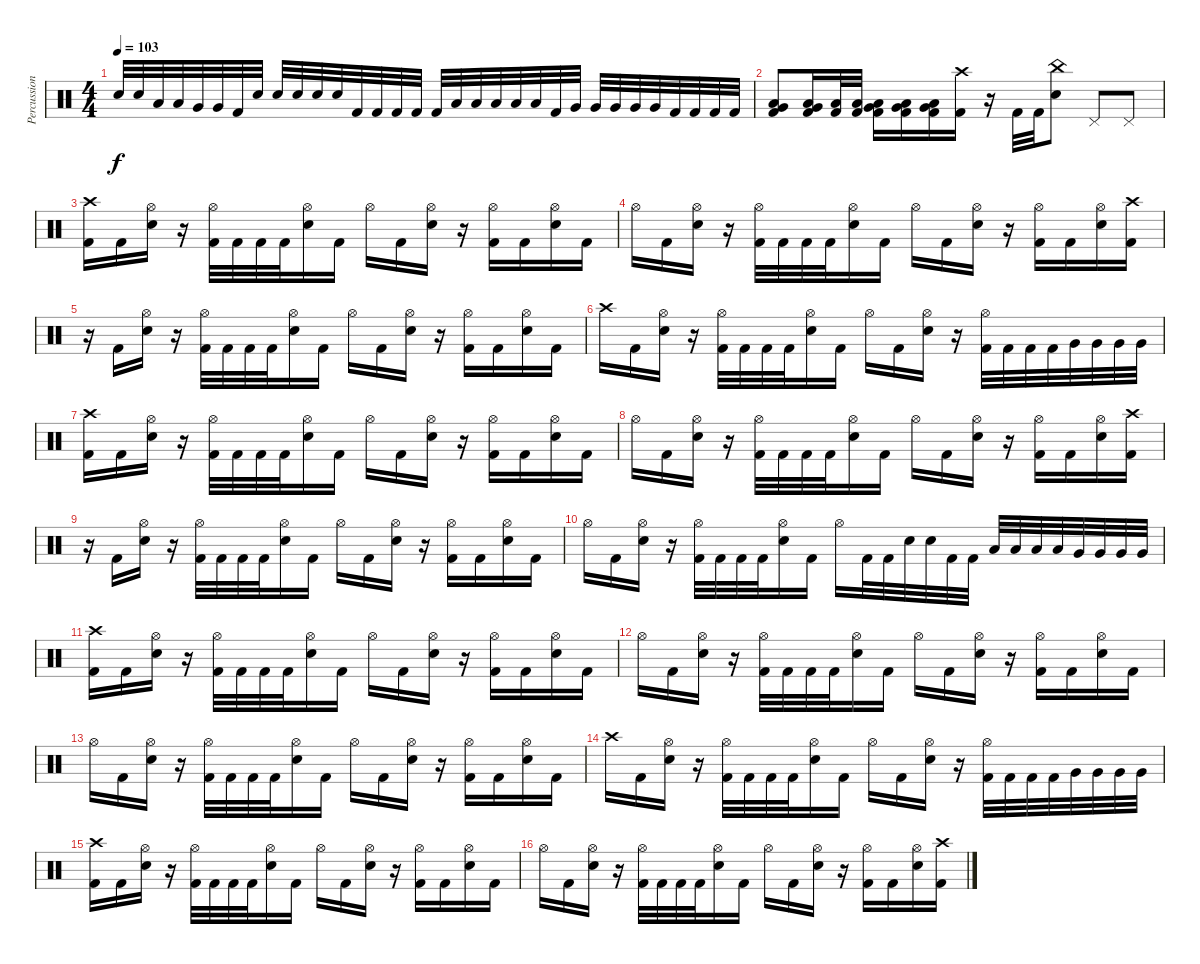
\track ("Percussion" "Percussion") {instrument percussion}
\staff {score}
\articulation defaults
\ts (4 4)
\tempo 103
\clef neutral
\ks c "Snare (hit) 2".32{dy f} "Snare (hit) 2".32 "Low Tom (hit)".32 "Low Tom (hit)".32 "Very Low Tom (hit)".32 "Very Low Tom (hit)".32 "Kick (hit) 2".32 "Snare (hit) 2".32 "Snare (hit) 2".32 "Snare (hit) 2".32 "Snare (hit) 2".32 "Snare (hit) 2".32 "Kick (hit) 2".32 "Kick (hit) 2".32 "Kick (hit) 2".32 "Kick (hit) 2".32 "Kick (hit) 2".32 "Low Tom (hit)".32 "Low Tom (hit)".32 "Low Tom (hit)".32 "Low Tom (hit)".32 "Low Tom (hit)".32 "Kick (hit) 2".32 "Very Low Tom (hit)".32 "Very Low Tom (hit)".32 "Very Low Tom (hit)".32 "Very Low Tom (hit)".32 "Very Low Tom (hit)".32 "Kick (hit) 2".32 "Kick (hit) 2".32 "Kick (hit) 2".32 "Kick (hit) 2".32
|
("Very Low Tom (hit)" "Low Floor Tom (hit)" "Kick (hit) 2").8 ("Very Low Tom (hit)" "Low Floor Tom (hit)" "Kick (hit) 2").16 ("Low Floor Tom (hit)" "Kick (hit) 2").32 ("Low Floor Tom (hit)" "Kick (hit) 2").32 ("Very Low Tom (hit)" "Low Floor Tom (hit)" "Kick (hit) 2").16 ("Very Low Tom (hit)" "Low Floor Tom (hit)" "Kick (hit) 2").16 ("Very Low Tom (hit)" "Low Floor Tom (hit)" "Kick (hit) 2").16 ("Crash high (hit)" "Kick (hit) 2").16 r.16 "Kick (hit) 2".32 "Kick (hit) 2".32 ("China (hit)" "Snare (hit) 2").8 "Pedal Hi-Hat (hit)".8 "Pedal Hi-Hat (hit)".8 |
("Crash high (hit)" "Kick (hit) 2").16 "Kick (hit) 2".16 ("Hi-Hat (open)" "Snare (hit) 2").16 r.16 ("Hi-Hat (open)" "Kick (hit) 2").32 "Kick (hit) 2".32 "Kick (hit) 2".32 "Kick (hit) 2".32 ("Hi-Hat (open)" "Snare (hit) 2").16 "Kick (hit) 2".16 "Hi-Hat (open)".16 "Kick (hit) 2".16 ("Hi-Hat (open)" "Snare (hit) 2").16 r.16 ("Hi-Hat (open)" "Kick (hit) 2").16 "Kick (hit) 2".16 ("Hi-Hat (open)" "Snare (hit) 2").16 "Kick (hit) 2".16 |
"Hi-Hat (open)".16 "Kick (hit) 2".16 ("Hi-Hat (open)" "Snare (hit) 2").16 r.16 ("Hi-Hat (open)" "Kick (hit) 2").32 "Kick (hit) 2".32 "Kick (hit) 2".32 "Kick (hit) 2".32 ("Hi-Hat (open)" "Snare (hit) 2").16 "Kick (hit) 2".16 "Hi-Hat (open)".16 "Kick (hit) 2".16 ("Hi-Hat (open)" "Snare (hit) 2").16 r.16 ("Hi-Hat (open)" "Kick (hit) 2").16 "Kick (hit) 2".16 ("Hi-Hat (open)" "Snare (hit) 2").16 ("Crash high (hit)" "Kick (hit) 2").16 |
r.16 "Kick (hit) 2".16 ("Hi-Hat (open)" "Snare (hit) 2").16 r.16 ("Hi-Hat (open)" "Kick (hit) 2").32 "Kick (hit) 2".32 "Kick (hit) 2".32 "Kick (hit) 2".32 ("Hi-Hat (open)" "Snare (hit) 2").16 "Kick (hit) 2".16 "Hi-Hat (open)".16 "Kick (hit) 2".16 ("Hi-Hat (open)" "Snare (hit) 2").16 r.16 ("Hi-Hat (open)" "Kick (hit) 2").16 "Kick (hit) 2".16 ("Hi-Hat (open)" "Snare (hit) 2").16 "Kick (hit) 2".16 |
"Crash high (hit)".16 "Kick (hit) 2".16 ("Hi-Hat (open)" "Snare (hit) 2").16 r.16 ("Hi-Hat (open)" "Kick (hit) 2").32 "Kick (hit) 2".32 "Kick (hit) 2".32 "Kick (hit) 2".32 ("Hi-Hat (open)" "Snare (hit) 2").16 "Kick (hit) 2".16 "Hi-Hat (open)".16 "Kick (hit) 2".16 ("Hi-Hat (open)" "Snare (hit) 2").16 r.16 ("Hi-Hat (open)" "Kick (hit) 2").32 "Kick (hit) 2".32 "Kick (hit) 2".32 "Kick (hit) 2".32 "Very Low Tom (hit)".32 "Very Low Tom (hit)".32 "Very Low Tom (hit)".32 "Very Low Tom (hit)".32 |
("Crash high (hit)" "Kick (hit) 2").16 "Kick (hit) 2".16 ("Hi-Hat (open)" "Snare (hit) 2").16 r.16 ("Hi-Hat (open)" "Kick (hit) 2").32 "Kick (hit) 2".32 "Kick (hit) 2".32 "Kick (hit) 2".32 ("Hi-Hat (open)" "Snare (hit) 2").16 "Kick (hit) 2".16 "Hi-Hat (open)".16 "Kick (hit) 2".16 ("Hi-Hat (open)" "Snare (hit) 2").16 r.16 ("Hi-Hat (open)" "Kick (hit) 2").16 "Kick (hit) 2".16 ("Hi-Hat (open)" "Snare (hit) 2").16 "Kick (hit) 2".16 |
"Hi-Hat (open)".16 "Kick (hit) 2".16 ("Hi-Hat (open)" "Snare (hit) 2").16 r.16 ("Hi-Hat (open)" "Kick (hit) 2").32 "Kick (hit) 2".32 "Kick (hit) 2".32 "Kick (hit) 2".32 ("Hi-Hat (open)" "Snare (hit) 2").16 "Kick (hit) 2".16 "Hi-Hat (open)".16 "Kick (hit) 2".16 ("Hi-Hat (open)" "Snare (hit) 2").16 r.16 ("Hi-Hat (open)" "Kick (hit) 2").16 "Kick (hit) 2".16 ("Hi-Hat (open)" "Snare (hit) 2").16 ("Crash high (hit)" "Kick (hit) 2").16 |
r.16 "Kick (hit) 2".16 ("Hi-Hat (open)" "Snare (hit) 2").16 r.16 ("Hi-Hat (open)" "Kick (hit) 2").32 "Kick (hit) 2".32 "Kick (hit) 2".32 "Kick (hit) 2".32 ("Hi-Hat (open)" "Snare (hit) 2").16 "Kick (hit) 2".16 "Hi-Hat (open)".16 "Kick (hit) 2".16 ("Hi-Hat (open)" "Snare (hit) 2").16 r.16 ("Hi-Hat (open)" "Kick (hit) 2").16 "Kick (hit) 2".16 ("Hi-Hat (open)" "Snare (hit) 2").16 "Kick (hit) 2".16 |
"Hi-Hat (open)".16 "Kick (hit) 2".16 ("Hi-Hat (open)" "Snare (hit) 2").16 r.16 ("Hi-Hat (open)" "Kick (hit) 2").32 "Kick (hit) 2".32 "Kick (hit) 2".32 "Kick (hit) 2".32 ("Hi-Hat (open)" "Snare (hit) 2").16 "Kick (hit) 2".16 "Hi-Hat (open)".16 "Kick (hit) 2".32 "Kick (hit) 2".32 "Snare (hit) 2".32 "Snare (hit) 2".32 "Kick (hit) 2".32 "Kick (hit) 2".32 "Low Tom (hit)".32 "Low Tom (hit)".32 "Low Tom (hit)".32 "Low Tom (hit)".32 "Very Low Tom (hit)".32 "Very Low Tom (hit)".32 "Very Low Tom (hit)".32 "Very Low Tom (hit)".32 |
("Crash high (hit)" "Kick (hit) 2").16 "Kick (hit) 2".16 ("Hi-Hat (open)" "Snare (hit) 2").16 r.16 ("Hi-Hat (open)" "Kick (hit) 2").32 "Kick (hit) 2".32 "Kick (hit) 2".32 "Kick (hit) 2".32 ("Hi-Hat (open)" "Snare (hit) 2").16 "Kick (hit) 2".16 "Hi-Hat (open)".16 "Kick (hit) 2".16 ("Hi-Hat (open)" "Snare (hit) 2").16 r.16 ("Hi-Hat (open)" "Kick (hit) 2").16 "Kick (hit) 2".16 ("Hi-Hat (open)" "Snare (hit) 2").16 "Kick (hit) 2".16 |
"Hi-Hat (open)".16 "Kick (hit) 2".16 ("Hi-Hat (open)" "Snare (hit) 2").16 r.16 ("Hi-Hat (open)" "Kick (hit) 2").32 "Kick (hit) 2".32 "Kick (hit) 2".32 "Kick (hit) 2".32 ("Hi-Hat (open)" "Snare (hit) 2").16 "Kick (hit) 2".16 "Hi-Hat (open)".16 "Kick (hit) 2".16 ("Hi-Hat (open)" "Snare (hit) 2").16 r.16 ("Hi-Hat (open)" "Kick (hit) 2").16 "Kick (hit) 2".16 ("Hi-Hat (open)" "Snare (hit) 2").16 "Kick (hit) 2".16 |
"Hi-Hat (open)".16 "Kick (hit) 2".16 ("Hi-Hat (open)" "Snare (hit) 2").16 r.16 ("Hi-Hat (open)" "Kick (hit) 2").32 "Kick (hit) 2".32 "Kick (hit) 2".32 "Kick (hit) 2".32 ("Hi-Hat (open)" "Snare (hit) 2").16 "Kick (hit) 2".16 "Hi-Hat (open)".16 "Kick (hit) 2".16 ("Hi-Hat (open)" "Snare (hit) 2").16 r.16 ("Hi-Hat (open)" "Kick (hit) 2").16 "Kick (hit) 2".16 ("Hi-Hat (open)" "Snare (hit) 2").16 "Kick (hit) 2".16 |
"Crash high (hit)".16 "Kick (hit) 2".16 ("Hi-Hat (open)" "Snare (hit) 2").16 r.16 ("Hi-Hat (open)" "Kick (hit) 2").32 "Kick (hit) 2".32 "Kick (hit) 2".32 "Kick (hit) 2".32 ("Hi-Hat (open)" "Snare (hit) 2").16 "Kick (hit) 2".16 "Hi-Hat (open)".16 "Kick (hit) 2".16 ("Hi-Hat (open)" "Snare (hit) 2").16 r.16 ("Hi-Hat (open)" "Kick (hit) 2").32 "Kick (hit) 2".32 "Kick (hit) 2".32 "Kick (hit) 2".32 "Very Low Tom (hit)".32 "Very Low Tom (hit)".32 "Very Low Tom (hit)".32 "Very Low Tom (hit)".32 |
("Crash high (hit)" "Kick (hit) 2").16 "Kick (hit) 2".16 ("Hi-Hat (open)" "Snare (hit) 2").16 r.16 ("Hi-Hat (open)" "Kick (hit) 2").32 "Kick (hit) 2".32 "Kick (hit) 2".32 "Kick (hit) 2".32 ("Hi-Hat (open)" "Snare (hit) 2").16 "Kick (hit) 2".16 "Hi-Hat (open)".16 "Kick (hit) 2".16 ("Hi-Hat (open)" "Snare (hit) 2").16 r.16 ("Hi-Hat (open)" "Kick (hit) 2").16 "Kick (hit) 2".16 ("Hi-Hat (open)" "Snare (hit) 2").16 "Kick (hit) 2".16 |
"Hi-Hat (open)".16 "Kick (hit) 2".16 ("Hi-Hat (open)" "Snare (hit) 2").16 r.16 ("Hi-Hat (open)" "Kick (hit) 2").32 "Kick (hit) 2".32 "Kick (hit) 2".32 "Kick (hit) 2".32 ("Hi-Hat (open)" "Snare (hit) 2").16 "Kick (hit) 2".16 "Hi-Hat (open)".16 "Kick (hit) 2".16 ("Hi-Hat (open)" "Snare (hit) 2").16 r.16 ("Hi-Hat (open)" "Kick (hit) 2").16 "Kick (hit) 2".16 ("Hi-Hat (open)" "Snare (hit) 2").16 ("Crash high (hit)" "Kick (hit) 2").16
